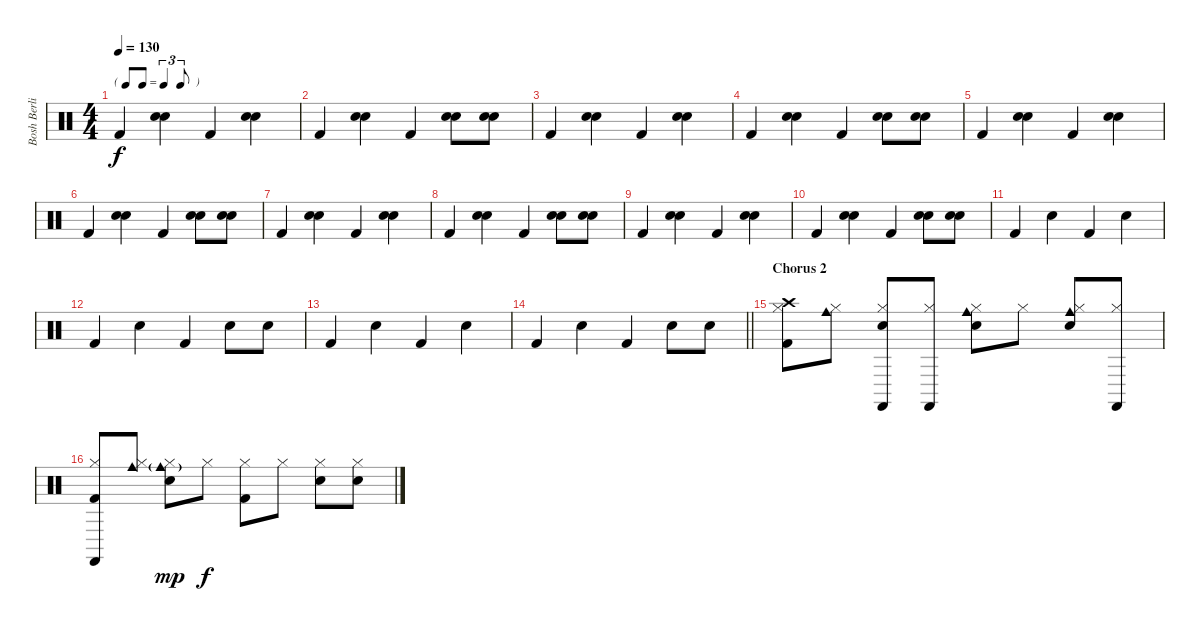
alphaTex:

\track ("Bosh Berlin" "Bosh Berli") {instrument percussion}
\staff {score}
\articulation defaults
\ts (4 4)
\tf triplet8th
\tempo 130
\clef neutral
\ks c "Kick (hit) 2".4{dy f}
("Hand Clap (hit)" "Snare (hit) 2").4 "Kick (hit) 2".4 ("Hand Clap (hit)" "Snare (hit) 2").4 |
"Kick (hit) 2".4 ("Hand Clap (hit)" "Snare (hit) 2").4 "Kick (hit) 2".4 ("Hand Clap (hit)" "Snare (hit) 2").8 ("Hand Clap (hit)" "Snare (hit) 2").8 |
"Kick (hit) 2".4 ("Hand Clap (hit)" "Snare (hit) 2").4 "Kick (hit) 2".4 ("Hand Clap (hit)" "Snare (hit) 2").4 |
"Kick (hit) 2".4 ("Hand Clap (hit)" "Snare (hit) 2").4 "Kick (hit) 2".4 ("Hand Clap (hit)" "Snare (hit) 2").8 ("Hand Clap (hit)" "Snare (hit) 2").8 |
"Kick (hit) 2".4 ("Hand Clap (hit)" "Snare (hit) 2").4 "Kick (hit) 2".4 ("Hand Clap (hit)" "Snare (hit) 2").4 |
"Kick (hit) 2".4 ("Hand Clap (hit)" "Snare (hit) 2").4 "Kick (hit) 2".4 ("Hand Clap (hit)" "Snare (hit) 2").8 ("Hand Clap (hit)" "Snare (hit) 2").8 |
"Kick (hit) 2".4 ("Hand Clap (hit)" "Snare (hit) 2").4 "Kick (hit) 2".4 ("Hand Clap (hit)" "Snare (hit) 2").4 |
"Kick (hit) 2".4 ("Hand Clap (hit)" "Snare (hit) 2").4 "Kick (hit) 2".4 ("Hand Clap (hit)" "Snare (hit) 2").8 ("Hand Clap (hit)" "Snare (hit) 2").8 |
"Kick (hit) 2".4 ("Hand Clap (hit)" "Snare (hit) 2").4 "Kick (hit) 2".4 ("Hand Clap (hit)" "Snare (hit) 2").4 |
"Kick (hit) 2".4 ("Hand Clap (hit)" "Snare (hit) 2").4 "Kick (hit) 2".4 ("Hand Clap (hit)" "Snare (hit) 2").8 ("Hand Clap (hit)" "Snare (hit) 2").8 |
"Kick (hit) 2".4 "Snare (hit) 2".4 "Kick (hit) 2".4 "Snare (hit) 2".4 |
"Kick (hit) 2".4 "Snare (hit) 2".4 "Kick (hit) 2".4 "Snare (hit) 2".8 "Snare (hit) 2".8 |
"Kick (hit) 2".4 "Snare (hit) 2".4 "Kick (hit) 2".4 "Snare (hit) 2".4 |
\barLineRight lightlight "Kick (hit) 2".4 "Snare (hit) 2".4 "Kick (hit) 2".4 "Snare (hit) 2".8 "Snare (hit) 2".8
|
\section ("" "Chorus 2")
("Crash high (hit)" "Hi-Hat (closed)" "Kick (hit) 2").8 ("Cowbell medium (hit)" "Hi-Hat (closed)").8 ("Castanets (hit)" "Hi-Hat (closed)" "Snare (hit) 2").8 ("Castanets (hit)" "Hi-Hat (closed)").8 ("Cowbell medium (hit)" "Hi-Hat (closed)" "Snare (hit) 2").8 "Hi-Hat (closed)".8 ("Cowbell medium (hit)" "Hi-Hat (closed)" "Snare (hit) 2").8 ("Castanets (hit)" "Hi-Hat (closed)").8 |
("Hi-Hat (closed)" "Castanets (hit)" "Kick (hit) 2").8 ("Hi-Hat (closed)" "Cowbell medium (hit)").8 ("Hi-Hat (closed)" "Cowbell medium (hit)"{g} "Snare (hit) 2").8{dy mp} "Hi-Hat (closed)".8{dy f} ("Hi-Hat (closed)" "Kick (hit) 2").8 "Hi-Hat (closed)".8 ("Hi-Hat (closed)" "Snare (hit) 2").8 ("Hi-Hat (closed)" "Snare (hit) 2").8
